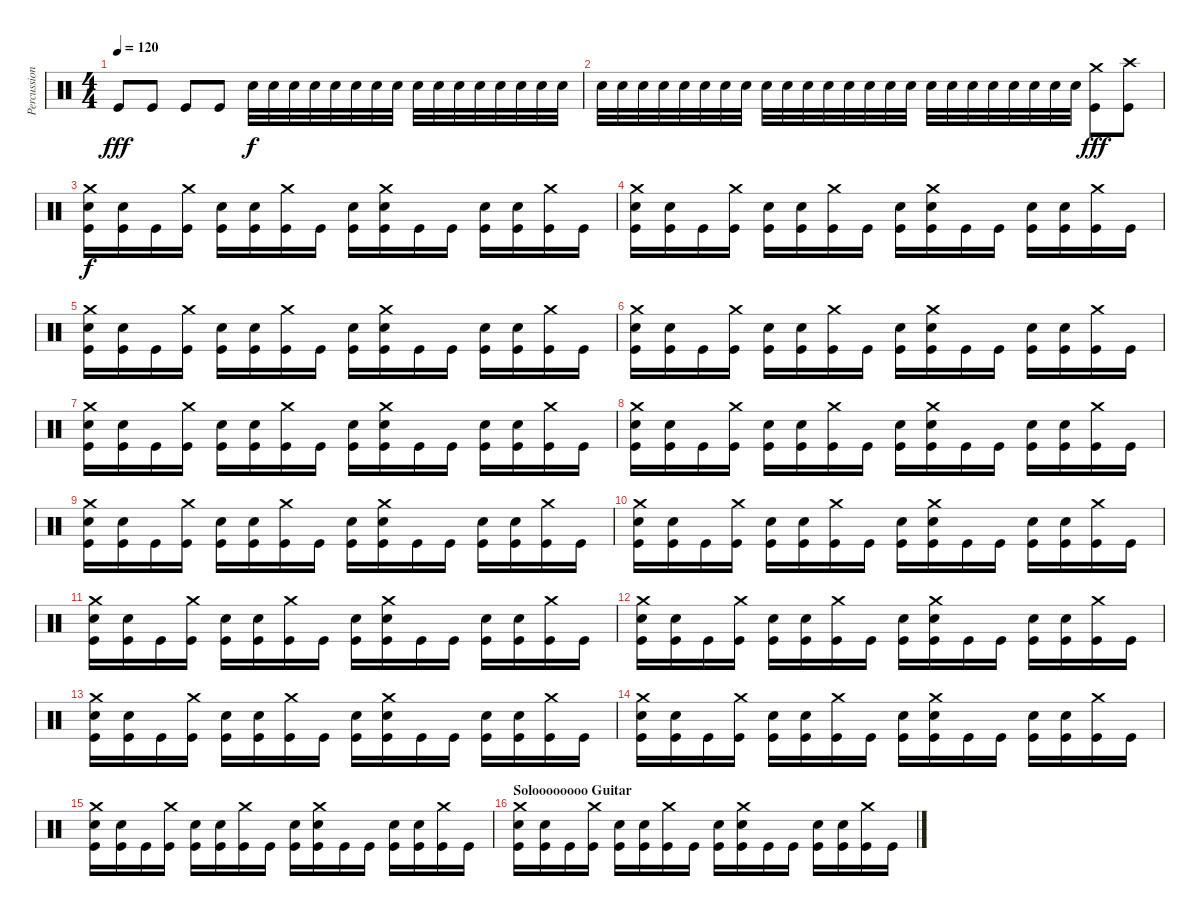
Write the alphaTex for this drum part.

\track ("Percussion" "Percussion") {instrument percussion}
\staff {score}
\articulation defaults
\ts (4 4)
\tempo 120
\clef neutral
\ks c "Kick (hit)".8{dy fff} "Kick (hit)".8 "Kick (hit)".8 "Kick (hit)".8 "Snare (hit) 2".32{dy f} "Snare (hit) 2".32 "Snare (hit) 2".32 "Snare (hit) 2".32 "Snare (hit) 2".32 "Snare (hit) 2".32 "Snare (hit) 2".32 "Snare (hit) 2".32 "Snare (hit) 2".32 "Snare (hit) 2".32 "Snare (hit) 2".32 "Snare (hit) 2".32 "Snare (hit) 2".32 "Snare (hit) 2".32 "Snare (hit) 2".32 "Snare (hit) 2".32
|
"Snare (hit) 2".32 "Snare (hit) 2".32 "Snare (hit) 2".32 "Snare (hit) 2".32 "Snare (hit) 2".32 "Snare (hit) 2".32 "Snare (hit) 2".32 "Snare (hit) 2".32 "Snare (hit) 2".32 "Snare (hit) 2".32 "Snare (hit) 2".32 "Snare (hit) 2".32 "Snare (hit) 2".32 "Snare (hit) 2".32 "Snare (hit) 2".32 "Snare (hit) 2".32 "Snare (hit) 2".32 "Snare (hit) 2".32 "Snare (hit) 2".32 "Snare (hit) 2".32 "Snare (hit) 2".32 "Snare (hit) 2".32 "Snare (hit) 2".32 "Snare (hit) 2".32 ("Crash medium (hit)" "Kick (hit)").8{dy fff} ("Crash high (hit)" "Kick (hit)").8 |
("Crash medium (hit)" "Snare (hit) 2" "Kick (hit)").16{dy f} ("Snare (hit) 2" "Kick (hit)").16 "Kick (hit)".16 ("Crash medium (hit)" "Kick (hit)").16 ("Snare (hit) 2" "Kick (hit)").16 ("Snare (hit) 2" "Kick (hit)").16 ("Crash medium (hit)" "Kick (hit)").16 "Kick (hit)".16 ("Snare (hit) 2" "Kick (hit)").16 ("Crash medium (hit)" "Snare (hit) 2" "Kick (hit)").16 "Kick (hit)".16 "Kick (hit)".16 ("Snare (hit) 2" "Kick (hit)").16 ("Snare (hit) 2" "Kick (hit)").16 ("Crash medium (hit)" "Kick (hit)").16 "Kick (hit)".16 |
("Crash medium (hit)" "Snare (hit) 2" "Kick (hit)").16 ("Snare (hit) 2" "Kick (hit)").16 "Kick (hit)".16 ("Crash medium (hit)" "Kick (hit)").16 ("Snare (hit) 2" "Kick (hit)").16 ("Snare (hit) 2" "Kick (hit)").16 ("Crash medium (hit)" "Kick (hit)").16 "Kick (hit)".16 ("Snare (hit) 2" "Kick (hit)").16 ("Crash medium (hit)" "Snare (hit) 2" "Kick (hit)").16 "Kick (hit)".16 "Kick (hit)".16 ("Snare (hit) 2" "Kick (hit)").16 ("Snare (hit) 2" "Kick (hit)").16 ("Crash medium (hit)" "Kick (hit)").16 "Kick (hit)".16 |
("Crash medium (hit)" "Snare (hit) 2" "Kick (hit)").16 ("Snare (hit) 2" "Kick (hit)").16 "Kick (hit)".16 ("Crash medium (hit)" "Kick (hit)").16 ("Snare (hit) 2" "Kick (hit)").16 ("Snare (hit) 2" "Kick (hit)").16 ("Crash medium (hit)" "Kick (hit)").16 "Kick (hit)".16 ("Snare (hit) 2" "Kick (hit)").16 ("Crash medium (hit)" "Snare (hit) 2" "Kick (hit)").16 "Kick (hit)".16 "Kick (hit)".16 ("Snare (hit) 2" "Kick (hit)").16 ("Snare (hit) 2" "Kick (hit)").16 ("Crash medium (hit)" "Kick (hit)").16 "Kick (hit)".16 |
("Crash medium (hit)" "Snare (hit) 2" "Kick (hit)").16 ("Snare (hit) 2" "Kick (hit)").16 "Kick (hit)".16 ("Crash medium (hit)" "Kick (hit)").16 ("Snare (hit) 2" "Kick (hit)").16 ("Snare (hit) 2" "Kick (hit)").16 ("Crash medium (hit)" "Kick (hit)").16 "Kick (hit)".16 ("Snare (hit) 2" "Kick (hit)").16 ("Crash medium (hit)" "Snare (hit) 2" "Kick (hit)").16 "Kick (hit)".16 "Kick (hit)".16 ("Snare (hit) 2" "Kick (hit)").16 ("Snare (hit) 2" "Kick (hit)").16 ("Crash medium (hit)" "Kick (hit)").16 "Kick (hit)".16 |
("Crash medium (hit)" "Snare (hit) 2" "Kick (hit)").16 ("Snare (hit) 2" "Kick (hit)").16 "Kick (hit)".16 ("Crash medium (hit)" "Kick (hit)").16 ("Snare (hit) 2" "Kick (hit)").16 ("Snare (hit) 2" "Kick (hit)").16 ("Crash medium (hit)" "Kick (hit)").16 "Kick (hit)".16 ("Snare (hit) 2" "Kick (hit)").16 ("Crash medium (hit)" "Snare (hit) 2" "Kick (hit)").16 "Kick (hit)".16 "Kick (hit)".16 ("Snare (hit) 2" "Kick (hit)").16 ("Snare (hit) 2" "Kick (hit)").16 ("Crash medium (hit)" "Kick (hit)").16 "Kick (hit)".16 |
("Crash medium (hit)" "Snare (hit) 2" "Kick (hit)").16 ("Snare (hit) 2" "Kick (hit)").16 "Kick (hit)".16 ("Crash medium (hit)" "Kick (hit)").16 ("Snare (hit) 2" "Kick (hit)").16 ("Snare (hit) 2" "Kick (hit)").16 ("Crash medium (hit)" "Kick (hit)").16 "Kick (hit)".16 ("Snare (hit) 2" "Kick (hit)").16 ("Crash medium (hit)" "Snare (hit) 2" "Kick (hit)").16 "Kick (hit)".16 "Kick (hit)".16 ("Snare (hit) 2" "Kick (hit)").16 ("Snare (hit) 2" "Kick (hit)").16 ("Crash medium (hit)" "Kick (hit)").16 "Kick (hit)".16 |
("Crash medium (hit)" "Snare (hit) 2" "Kick (hit)").16 ("Snare (hit) 2" "Kick (hit)").16 "Kick (hit)".16 ("Crash medium (hit)" "Kick (hit)").16 ("Snare (hit) 2" "Kick (hit)").16 ("Snare (hit) 2" "Kick (hit)").16 ("Crash medium (hit)" "Kick (hit)").16 "Kick (hit)".16 ("Snare (hit) 2" "Kick (hit)").16 ("Crash medium (hit)" "Snare (hit) 2" "Kick (hit)").16 "Kick (hit)".16 "Kick (hit)".16 ("Snare (hit) 2" "Kick (hit)").16 ("Snare (hit) 2" "Kick (hit)").16 ("Crash medium (hit)" "Kick (hit)").16 "Kick (hit)".16 |
("Crash medium (hit)" "Snare (hit) 2" "Kick (hit)").16 ("Snare (hit) 2" "Kick (hit)").16 "Kick (hit)".16 ("Crash medium (hit)" "Kick (hit)").16 ("Snare (hit) 2" "Kick (hit)").16 ("Snare (hit) 2" "Kick (hit)").16 ("Crash medium (hit)" "Kick (hit)").16 "Kick (hit)".16 ("Snare (hit) 2" "Kick (hit)").16 ("Crash medium (hit)" "Snare (hit) 2" "Kick (hit)").16 "Kick (hit)".16 "Kick (hit)".16 ("Snare (hit) 2" "Kick (hit)").16 ("Snare (hit) 2" "Kick (hit)").16 ("Crash medium (hit)" "Kick (hit)").16 "Kick (hit)".16 |
("Crash medium (hit)" "Snare (hit) 2" "Kick (hit)").16 ("Snare (hit) 2" "Kick (hit)").16 "Kick (hit)".16 ("Crash medium (hit)" "Kick (hit)").16 ("Snare (hit) 2" "Kick (hit)").16 ("Snare (hit) 2" "Kick (hit)").16 ("Crash medium (hit)" "Kick (hit)").16 "Kick (hit)".16 ("Snare (hit) 2" "Kick (hit)").16 ("Crash medium (hit)" "Snare (hit) 2" "Kick (hit)").16 "Kick (hit)".16 "Kick (hit)".16 ("Snare (hit) 2" "Kick (hit)").16 ("Snare (hit) 2" "Kick (hit)").16 ("Crash medium (hit)" "Kick (hit)").16 "Kick (hit)".16 |
("Crash medium (hit)" "Snare (hit) 2" "Kick (hit)").16 ("Snare (hit) 2" "Kick (hit)").16 "Kick (hit)".16 ("Crash medium (hit)" "Kick (hit)").16 ("Snare (hit) 2" "Kick (hit)").16 ("Snare (hit) 2" "Kick (hit)").16 ("Crash medium (hit)" "Kick (hit)").16 "Kick (hit)".16 ("Snare (hit) 2" "Kick (hit)").16 ("Crash medium (hit)" "Snare (hit) 2" "Kick (hit)").16 "Kick (hit)".16 "Kick (hit)".16 ("Snare (hit) 2" "Kick (hit)").16 ("Snare (hit) 2" "Kick (hit)").16 ("Crash medium (hit)" "Kick (hit)").16 "Kick (hit)".16 |
("Crash medium (hit)" "Snare (hit) 2" "Kick (hit)").16 ("Snare (hit) 2" "Kick (hit)").16 "Kick (hit)".16 ("Crash medium (hit)" "Kick (hit)").16 ("Snare (hit) 2" "Kick (hit)").16 ("Snare (hit) 2" "Kick (hit)").16 ("Crash medium (hit)" "Kick (hit)").16 "Kick (hit)".16 ("Snare (hit) 2" "Kick (hit)").16 ("Crash medium (hit)" "Snare (hit) 2" "Kick (hit)").16 "Kick (hit)".16 "Kick (hit)".16 ("Snare (hit) 2" "Kick (hit)").16 ("Snare (hit) 2" "Kick (hit)").16 ("Crash medium (hit)" "Kick (hit)").16 "Kick (hit)".16 |
("Crash medium (hit)" "Snare (hit) 2" "Kick (hit)").16 ("Snare (hit) 2" "Kick (hit)").16 "Kick (hit)".16 ("Crash medium (hit)" "Kick (hit)").16 ("Snare (hit) 2" "Kick (hit)").16 ("Snare (hit) 2" "Kick (hit)").16 ("Crash medium (hit)" "Kick (hit)").16 "Kick (hit)".16 ("Snare (hit) 2" "Kick (hit)").16 ("Crash medium (hit)" "Snare (hit) 2" "Kick (hit)").16 "Kick (hit)".16 "Kick (hit)".16 ("Snare (hit) 2" "Kick (hit)").16 ("Snare (hit) 2" "Kick (hit)").16 ("Crash medium (hit)" "Kick (hit)").16 "Kick (hit)".16 |
("Crash medium (hit)" "Snare (hit) 2" "Kick (hit)").16 ("Snare (hit) 2" "Kick (hit)").16 "Kick (hit)".16 ("Crash medium (hit)" "Kick (hit)").16 ("Snare (hit) 2" "Kick (hit)").16 ("Snare (hit) 2" "Kick (hit)").16 ("Crash medium (hit)" "Kick (hit)").16 "Kick (hit)".16 ("Snare (hit) 2" "Kick (hit)").16 ("Crash medium (hit)" "Snare (hit) 2" "Kick (hit)").16 "Kick (hit)".16 "Kick (hit)".16 ("Snare (hit) 2" "Kick (hit)").16 ("Snare (hit) 2" "Kick (hit)").16 ("Crash medium (hit)" "Kick (hit)").16 "Kick (hit)".16 |
\section ("" "Soloooooooo Guitar")
("Crash medium (hit)" "Snare (hit) 2" "Kick (hit)").16 ("Snare (hit) 2" "Kick (hit)").16 "Kick (hit)".16 ("Crash medium (hit)" "Kick (hit)").16 ("Snare (hit) 2" "Kick (hit)").16 ("Snare (hit) 2" "Kick (hit)").16 ("Crash medium (hit)" "Kick (hit)").16 "Kick (hit)".16 ("Snare (hit) 2" "Kick (hit)").16 ("Crash medium (hit)" "Snare (hit) 2" "Kick (hit)").16 "Kick (hit)".16 "Kick (hit)".16 ("Snare (hit) 2" "Kick (hit)").16 ("Snare (hit) 2" "Kick (hit)").16 ("Crash medium (hit)" "Kick (hit)").16 "Kick (hit)".16
